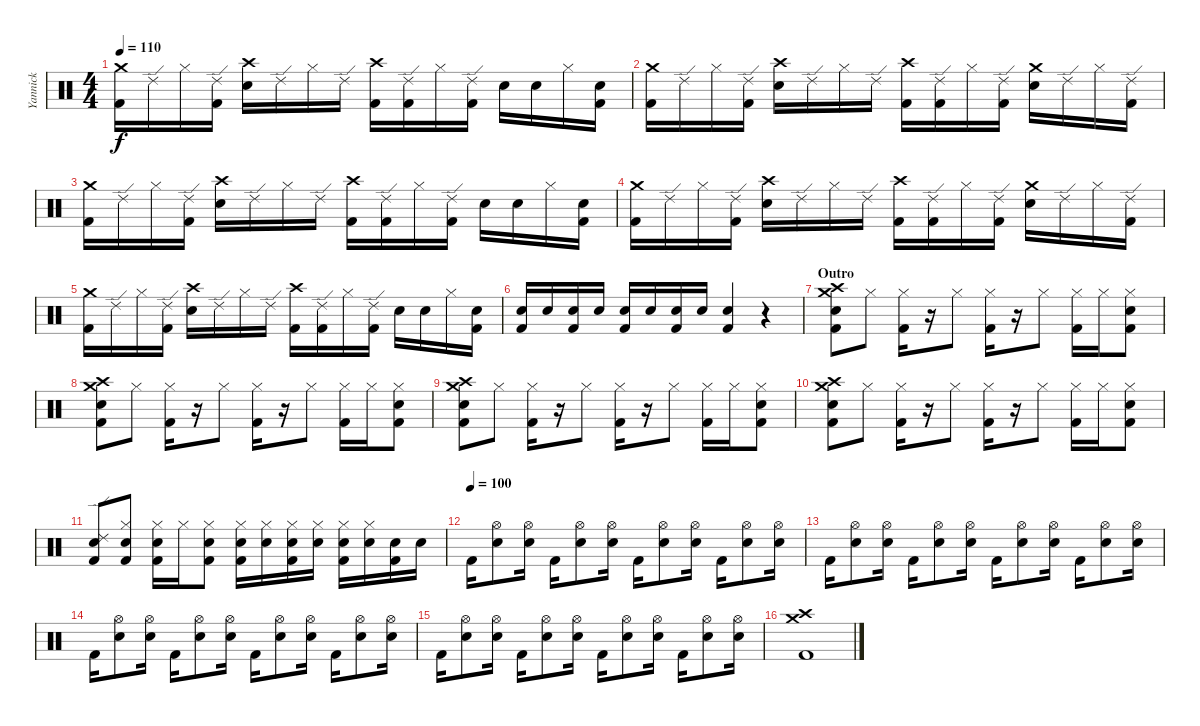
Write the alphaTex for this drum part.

\track ("Yannick" "Yannick") {instrument percussion}
\staff {score}
\articulation defaults
\ts (4 4)
\tempo 110
\clef neutral
\ks c
("Crash medium (hit)" "Kick (hit) 2").16{dy f} "Ride (edge) 2".16 "Hi-Hat (closed)".16 ("Ride (edge) 2" "Kick (hit) 2").16 ("Crash high (hit)" "Electric Snare (hit)").16 "Ride (edge) 2".16 "Hi-Hat (closed)".16 "Ride (edge) 2".16 ("Crash high (hit)" "Kick (hit) 2").16 ("Ride (edge) 2" "Kick (hit) 2").16 "Hi-Hat (closed)".16 ("Ride (edge) 2" "Kick (hit) 2").16 "Electric Snare (hit)".16 "Electric Snare (hit)".16 "Hi-Hat (closed)".16 ("Electric Snare (hit)" "Kick (hit) 2").16 |
("Crash medium (hit)" "Kick (hit) 2").16 "Ride (edge) 2".16 "Hi-Hat (closed)".16 ("Ride (edge) 2" "Kick (hit) 2").16 ("Crash high (hit)" "Electric Snare (hit)").16 "Ride (edge) 2".16 "Hi-Hat (closed)".16 "Ride (edge) 2".16 ("Crash high (hit)" "Kick (hit) 2").16 ("Ride (edge) 2" "Kick (hit) 2").16 "Hi-Hat (closed)".16 ("Ride (edge) 2" "Kick (hit) 2").16 ("Crash medium (hit)" "Electric Snare (hit)").16 "Ride (edge) 2".16 "Hi-Hat (closed)".16 ("Ride (edge) 2" "Kick (hit) 2").16 |
("Crash medium (hit)" "Kick (hit) 2").16 "Ride (edge) 2".16 "Hi-Hat (closed)".16 ("Ride (edge) 2" "Kick (hit) 2").16 ("Crash high (hit)" "Electric Snare (hit)").16 "Ride (edge) 2".16 "Hi-Hat (closed)".16 "Ride (edge) 2".16 ("Crash high (hit)" "Kick (hit) 2").16 ("Ride (edge) 2" "Kick (hit) 2").16 "Hi-Hat (closed)".16 ("Ride (edge) 2" "Kick (hit) 2").16 "Electric Snare (hit)".16 "Electric Snare (hit)".16 "Hi-Hat (closed)".16 ("Electric Snare (hit)" "Kick (hit) 2").16 |
("Crash medium (hit)" "Kick (hit) 2").16 "Ride (edge) 2".16 "Hi-Hat (closed)".16 ("Ride (edge) 2" "Kick (hit) 2").16 ("Crash high (hit)" "Electric Snare (hit)").16 "Ride (edge) 2".16 "Hi-Hat (closed)".16 "Ride (edge) 2".16 ("Crash high (hit)" "Kick (hit) 2").16 ("Ride (edge) 2" "Kick (hit) 2").16 "Hi-Hat (closed)".16 ("Ride (edge) 2" "Kick (hit) 2").16 ("Crash medium (hit)" "Electric Snare (hit)").16 "Ride (edge) 2".16 "Hi-Hat (closed)".16 ("Ride (edge) 2" "Kick (hit) 2").16 |
("Crash medium (hit)" "Kick (hit) 2").16 "Ride (edge) 2".16 "Hi-Hat (closed)".16 ("Ride (edge) 2" "Kick (hit) 2").16 ("Crash high (hit)" "Electric Snare (hit)").16 "Ride (edge) 2".16 "Hi-Hat (closed)".16 "Ride (edge) 2".16 ("Crash high (hit)" "Kick (hit) 2").16 ("Ride (edge) 2" "Kick (hit) 2").16 "Hi-Hat (closed)".16 ("Ride (edge) 2" "Kick (hit) 2").16 "Electric Snare (hit)".16 "Electric Snare (hit)".16 "Hi-Hat (closed)".16 ("Electric Snare (hit)" "Kick (hit) 2").16 |
("Electric Snare (hit)" "Kick (hit) 2").16 "Electric Snare (hit)".16 ("Electric Snare (hit)" "Kick (hit) 2").16 "Electric Snare (hit)".16 ("Electric Snare (hit)" "Kick (hit) 2").16 "Electric Snare (hit)".16 ("Electric Snare (hit)" "Kick (hit) 2").16 "Electric Snare (hit)".16 ("Electric Snare (hit)" "Kick (hit) 2").4 r.4 |
\section ("" "Outro")
("Crash medium (hit)" "Crash high (hit)" "Electric Snare (hit)" "Kick (hit) 2").8 "Hi-Hat (closed)".8 ("Hi-Hat (closed)" "Kick (hit) 2").16 r.16 "Hi-Hat (closed)".8 ("Hi-Hat (closed)" "Kick (hit) 2").16 r.16 "Hi-Hat (closed)".8 ("Hi-Hat (closed)" "Kick (hit) 2").16 "Hi-Hat (closed)".16 ("Hi-Hat (closed)" "Electric Snare (hit)" "Kick (hit) 2").8 |
("Crash medium (hit)" "Crash high (hit)" "Electric Snare (hit)" "Kick (hit) 2").8 "Hi-Hat (closed)".8 ("Hi-Hat (closed)" "Kick (hit) 2").16 r.16 "Hi-Hat (closed)".8 ("Hi-Hat (closed)" "Kick (hit) 2").16 r.16 "Hi-Hat (closed)".8 ("Hi-Hat (closed)" "Kick (hit) 2").16 "Hi-Hat (closed)".16 ("Hi-Hat (closed)" "Electric Snare (hit)" "Kick (hit) 2").8 |
("Crash medium (hit)" "Crash high (hit)" "Electric Snare (hit)" "Kick (hit) 2").8 "Hi-Hat (closed)".8 ("Hi-Hat (closed)" "Kick (hit) 2").16 r.16 "Hi-Hat (closed)".8 ("Hi-Hat (closed)" "Kick (hit) 2").16 r.16 "Hi-Hat (closed)".8 ("Hi-Hat (closed)" "Kick (hit) 2").16 "Hi-Hat (closed)".16 ("Hi-Hat (closed)" "Electric Snare (hit)" "Kick (hit) 2").8 |
("Crash medium (hit)" "Crash high (hit)" "Electric Snare (hit)" "Kick (hit) 2").8 "Hi-Hat (closed)".8 ("Hi-Hat (closed)" "Kick (hit) 2").16 r.16 "Hi-Hat (closed)".8 ("Hi-Hat (closed)" "Kick (hit) 2").16 r.16 "Hi-Hat (closed)".8 ("Hi-Hat (closed)" "Kick (hit) 2").16 "Hi-Hat (closed)".16 ("Hi-Hat (closed)" "Electric Snare (hit)" "Kick (hit) 2").8 |
("Ride (edge) 2" "Electric Snare (hit)" "Kick (hit) 2").8 ("Hi-Hat (closed)" "Electric Snare (hit)" "Kick (hit) 2").8 ("Hi-Hat (closed)" "Electric Snare (hit)" "Kick (hit) 2").16 "Hi-Hat (closed)".16 ("Hi-Hat (closed)" "Electric Snare (hit)" "Kick (hit) 2").8 ("Hi-Hat (closed)" "Electric Snare (hit)" "Kick (hit) 2").16 ("Hi-Hat (closed)" "Electric Snare (hit)").16 ("Hi-Hat (closed)" "Electric Snare (hit)" "Kick (hit) 2").16 ("Hi-Hat (closed)" "Electric Snare (hit)").16 ("Hi-Hat (closed)" "Electric Snare (hit)" "Kick (hit) 2").16 ("Hi-Hat (closed)" "Electric Snare (hit)").16 ("Electric Snare (hit)" "Kick (hit) 2").16 "Electric Snare (hit)".16 |
\tempo (100)
"Kick (hit) 2".16 ("Hi-Hat (open)" "Electric Snare (hit)").8 ("Hi-Hat (open)" "Electric Snare (hit)").16 "Kick (hit) 2".16 ("Hi-Hat (open)" "Electric Snare (hit)").8 ("Hi-Hat (open)" "Electric Snare (hit)").16 "Kick (hit) 2".16 ("Hi-Hat (open)" "Electric Snare (hit)").8 ("Hi-Hat (open)" "Electric Snare (hit)").16 "Kick (hit) 2".16 ("Hi-Hat (open)" "Electric Snare (hit)").8 ("Hi-Hat (open)" "Electric Snare (hit)").16 |
"Kick (hit) 2".16 ("Hi-Hat (open)" "Electric Snare (hit)").8 ("Hi-Hat (open)" "Electric Snare (hit)").16 "Kick (hit) 2".16 ("Hi-Hat (open)" "Electric Snare (hit)").8 ("Hi-Hat (open)" "Electric Snare (hit)").16 "Kick (hit) 2".16 ("Hi-Hat (open)" "Electric Snare (hit)").8 ("Hi-Hat (open)" "Electric Snare (hit)").16 "Kick (hit) 2".16 ("Hi-Hat (open)" "Electric Snare (hit)").8 ("Hi-Hat (open)" "Electric Snare (hit)").16 |
"Kick (hit) 2".16 ("Hi-Hat (open)" "Electric Snare (hit)").8 ("Hi-Hat (open)" "Electric Snare (hit)").16 "Kick (hit) 2".16 ("Hi-Hat (open)" "Electric Snare (hit)").8 ("Hi-Hat (open)" "Electric Snare (hit)").16 "Kick (hit) 2".16 ("Hi-Hat (open)" "Electric Snare (hit)").8 ("Hi-Hat (open)" "Electric Snare (hit)").16 "Kick (hit) 2".16 ("Hi-Hat (open)" "Electric Snare (hit)").8 ("Hi-Hat (open)" "Electric Snare (hit)").16 |
"Kick (hit) 2".16 ("Hi-Hat (open)" "Electric Snare (hit)").8 ("Hi-Hat (open)" "Electric Snare (hit)").16 "Kick (hit) 2".16 ("Hi-Hat (open)" "Electric Snare (hit)").8 ("Hi-Hat (open)" "Electric Snare (hit)").16 "Kick (hit) 2".16 ("Hi-Hat (open)" "Electric Snare (hit)").8 ("Hi-Hat (open)" "Electric Snare (hit)").16 "Kick (hit) 2".16 ("Hi-Hat (open)" "Electric Snare (hit)").8 ("Hi-Hat (open)" "Electric Snare (hit)").16 |
("Crash medium (hit)" "Crash high (hit)" "Kick (hit) 2").1
